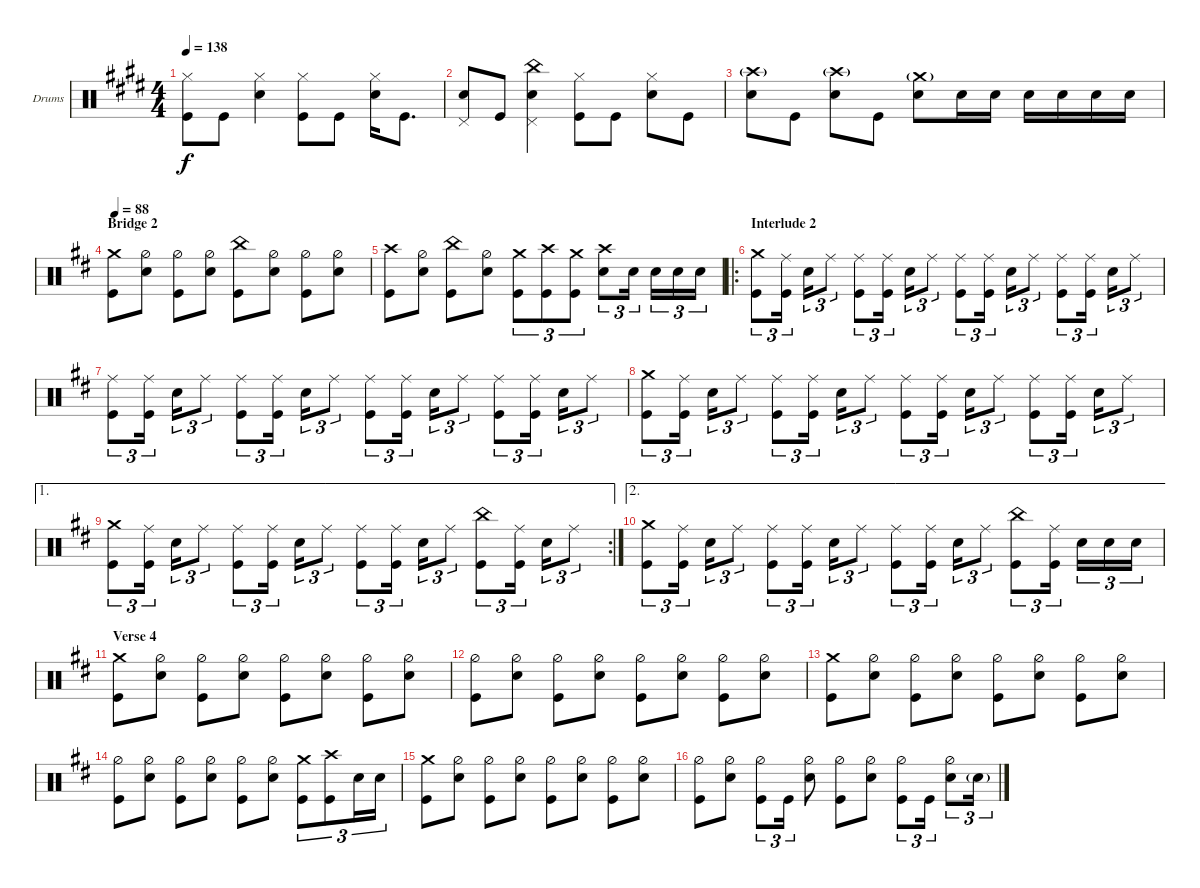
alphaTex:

\defaultSystemsLayout 4
\bracketExtendMode groupsimilarinstruments
\firstSystemTrackNameOrientation horizontal
\otherSystemsTrackNameOrientation horizontal
\track ("Drumkit" "Drums") {instrument percussion}
\staff {score}
\articulation defaults
\ts (4 4)
\tempo 138
\clef neutral
\ks e
("Hi-Hat (closed)" "Kick (hit)").8{dy f} "Kick (hit)".8 ("Snare (hit) 2" "Hi-Hat (closed)").4 ("Hi-Hat (closed)" "Kick (hit)").8 "Kick (hit)".8 ("Snare (hit) 2" "Hi-Hat (closed)").16 "Kick (hit)".8{d} |
("Snare (hit) 2" "Pedal Hi-Hat (hit)").8 "Kick (hit)".8 ("Snare (hit) 2" "China (hit)" "Pedal Hi-Hat (hit)").4 ("Hi-Hat (closed)" "Kick (hit)").8 "Kick (hit)".8 ("Snare (hit) 2" "Hi-Hat (closed)").8 "Kick (hit)".8 |
("Crash high (hit)"{g} "Snare (hit) 2").8 "Kick (hit)".8 ("Crash high (hit)"{g} "Snare (hit) 2").8 "Kick (hit)".8 ("Snare (hit) 2" "Crash medium (hit)"{g}).8 "Snare (hit) 2".16 "Snare (hit) 2".16 "Snare (hit) 2".16 "Snare (hit) 2".16 "Snare (hit) 2".16 "Snare (hit) 2".16 |
\section ("" "Bridge 2")
\tempo (88 0.00625)
\ks d
("Kick (hit)" "Crash medium (hit)").8 ("Snare (hit) 2" "Hi-Hat (half)").8 ("Kick (hit)" "Hi-Hat (half)").8 ("Snare (hit) 2" "Hi-Hat (half)").8 ("Kick (hit)" "China (hit)").8 ("Snare (hit) 2" "Hi-Hat (half)").8 ("Kick (hit)" "Hi-Hat (half)").8 ("Snare (hit) 2" "Hi-Hat (half)").8 |
("Kick (hit)" "Crash high (hit)").8 ("Snare (hit) 2" "Hi-Hat (half)").8 ("Kick (hit)" "China (hit)").8 ("Snare (hit) 2" "Hi-Hat (half)").8 ("Kick (hit)" "Crash medium (hit)").8{tu (3 2)} ("Kick (hit)" "Crash high (hit)").8{tu (3 2)} ("Crash medium (hit)" "Kick (hit)").8{tu (3 2)} ("Snare (hit) 2" "Crash high (hit)").8{tu (3 2)} "Snare (hit) 2".16{tu (3 2)} "Snare (hit) 2".16{tu (3 2)} "Snare (hit) 2".16{tu (3 2)} "Snare (hit) 2".16{tu (3 2)} |
\ro
\section ("" "Interlude 2")
("Kick (hit)" "Crash medium (hit)").8{tu (3 2)} ("Kick (hit)" "Ride (middle)").16{tu (3 2)} "Snare (hit) 2".16{tu (3 2)} "Ride (middle)".8{tu (3 2)} ("Kick (hit)" "Ride (middle)").8{tu (3 2)} ("Kick (hit)" "Ride (middle)").16{tu (3 2)} "Snare (hit) 2".16{tu (3 2)} "Ride (middle)".8{tu (3 2)} ("Kick (hit)" "Ride (middle)").8{tu (3 2)} ("Kick (hit)" "Ride (middle)").16{tu (3 2)} "Snare (hit) 2".16{tu (3 2)} "Ride (middle)".8{tu (3 2)} ("Kick (hit)" "Ride (middle)").8{tu (3 2)} ("Kick (hit)" "Ride (middle)").16{tu (3 2)} "Snare (hit) 2".16{tu (3 2)} "Ride (middle)".8{tu (3 2)} |
("Kick (hit)" "Ride (middle)").8{tu (3 2)} ("Kick (hit)" "Ride (middle)").16{tu (3 2)} "Snare (hit) 2".16{tu (3 2)} "Ride (middle)".8{tu (3 2)} ("Kick (hit)" "Ride (middle)").8{tu (3 2)} ("Kick (hit)" "Ride (middle)").16{tu (3 2)} "Snare (hit) 2".16{tu (3 2)} "Ride (middle)".8{tu (3 2)} ("Kick (hit)" "Ride (middle)").8{tu (3 2)} ("Kick (hit)" "Ride (middle)").16{tu (3 2)} "Snare (hit) 2".16{tu (3 2)} "Ride (middle)".8{tu (3 2)} ("Kick (hit)" "Ride (middle)").8{tu (3 2)} ("Kick (hit)" "Ride (middle)").16{tu (3 2)} "Snare (hit) 2".16{tu (3 2)} "Ride (middle)".8{tu (3 2)} |
("Kick (hit)" "Crash medium (hit)").8{tu (3 2)} ("Kick (hit)" "Ride (middle)").16{tu (3 2)} "Snare (hit) 2".16{tu (3 2)} "Ride (middle)".8{tu (3 2)} ("Kick (hit)" "Ride (middle)").8{tu (3 2)} ("Kick (hit)" "Ride (middle)").16{tu (3 2)} "Snare (hit) 2".16{tu (3 2)} "Ride (middle)".8{tu (3 2)} ("Kick (hit)" "Ride (middle)").8{tu (3 2)} ("Kick (hit)" "Ride (middle)").16{tu (3 2)} "Snare (hit) 2".16{tu (3 2)} "Ride (middle)".8{tu (3 2)} ("Kick (hit)" "Ride (middle)").8{tu (3 2)} ("Kick (hit)" "Ride (middle)").16{tu (3 2)} "Snare (hit) 2".16{tu (3 2)} "Ride (middle)".8{tu (3 2)} |
\ae 1
\rc 2
("Kick (hit)" "Crash medium (hit)").8{tu (3 2)} ("Kick (hit)" "Ride (middle)").16{tu (3 2)} "Snare (hit) 2".16{tu (3 2)} "Ride (middle)".8{tu (3 2)} ("Kick (hit)" "Ride (middle)").8{tu (3 2)} ("Kick (hit)" "Ride (middle)").16{tu (3 2)} "Snare (hit) 2".16{tu (3 2)} "Ride (middle)".8{tu (3 2)} ("Kick (hit)" "Ride (middle)").8{tu (3 2)} ("Kick (hit)" "Ride (middle)").16{tu (3 2)} "Snare (hit) 2".16{tu (3 2)} "Ride (middle)".8{tu (3 2)} ("Kick (hit)" "China (hit)").8{tu (3 2)} ("Kick (hit)" "Ride (middle)").16{tu (3 2)} "Snare (hit) 2".16{tu (3 2)} "Ride (middle)".8{tu (3 2)} |
\ae 2
("Kick (hit)" "Crash medium (hit)").8{tu (3 2)} ("Kick (hit)" "Ride (middle)").16{tu (3 2)} "Snare (hit) 2".16{tu (3 2)} "Ride (middle)".8{tu (3 2)} ("Kick (hit)" "Ride (middle)").8{tu (3 2)} ("Kick (hit)" "Ride (middle)").16{tu (3 2)} "Snare (hit) 2".16{tu (3 2)} "Ride (middle)".8{tu (3 2)} ("Kick (hit)" "Ride (middle)").8{tu (3 2)} ("Kick (hit)" "Ride (middle)").16{tu (3 2)} "Snare (hit) 2".16{tu (3 2)} "Ride (middle)".8{tu (3 2)} ("Kick (hit)" "China (hit)").8{tu (3 2)} ("Kick (hit)" "Ride (middle)").16{tu (3 2)} "Snare (hit) 2".16{tu (3 2)} "Snare (hit) 2".16{tu (3 2)} "Snare (hit) 2".16{tu (3 2)} |
\section ("" "Verse 4")
("Kick (hit)" "Crash medium (hit)").8 ("Hi-Hat (half)" "Snare (hit) 2").8 ("Hi-Hat (half)" "Kick (hit)").8 ("Hi-Hat (half)" "Snare (hit) 2").8 ("Hi-Hat (half)" "Kick (hit)").8 ("Hi-Hat (half)" "Snare (hit) 2").8 ("Hi-Hat (half)" "Kick (hit)").8 ("Hi-Hat (half)" "Snare (hit) 2").8 |
("Hi-Hat (half)" "Kick (hit)").8 ("Hi-Hat (half)" "Snare (hit) 2").8 ("Hi-Hat (half)" "Kick (hit)").8 ("Hi-Hat (half)" "Snare (hit) 2").8 ("Hi-Hat (half)" "Kick (hit)").8 ("Hi-Hat (half)" "Snare (hit) 2").8 ("Hi-Hat (half)" "Kick (hit)").8 ("Hi-Hat (half)" "Snare (hit) 2").8 |
("Kick (hit)" "Crash medium (hit)").8 ("Hi-Hat (half)" "Snare (hit) 2").8 ("Hi-Hat (half)" "Kick (hit)").8 ("Hi-Hat (half)" "Snare (hit) 2").8 ("Hi-Hat (half)" "Kick (hit)").8 ("Hi-Hat (half)" "Snare (hit) 2").8 ("Hi-Hat (half)" "Kick (hit)").8 ("Hi-Hat (half)" "Snare (hit) 2").8 |
("Hi-Hat (half)" "Kick (hit)").8 ("Hi-Hat (half)" "Snare (hit) 2").8 ("Hi-Hat (half)" "Kick (hit)").8 ("Hi-Hat (half)" "Snare (hit) 2").8 ("Hi-Hat (half)" "Kick (hit)").8 ("Hi-Hat (half)" "Snare (hit) 2").8 ("Kick (hit)" "Crash medium (hit)").8{tu (3 2)} ("Kick (hit)" "Crash high (hit)").8{tu (3 2)} "Snare (hit) 2".16{tu (3 2)} "Snare (hit) 2".16{tu (3 2)} |
("Kick (hit)" "Crash medium (hit)").8 ("Hi-Hat (half)" "Snare (hit) 2").8 ("Hi-Hat (half)" "Kick (hit)").8 ("Hi-Hat (half)" "Snare (hit) 2").8 ("Hi-Hat (half)" "Kick (hit)").8 ("Hi-Hat (half)" "Snare (hit) 2").8 ("Hi-Hat (half)" "Kick (hit)").8 ("Hi-Hat (half)" "Snare (hit) 2").8 |
("Hi-Hat (half)" "Kick (hit)").8 ("Hi-Hat (half)" "Snare (hit) 2").8 ("Hi-Hat (half)" "Kick (hit)").8{tu (3 2)} "Kick (hit)".16{tu (3 2)} ("Hi-Hat (half)" "Snare (hit) 2").8 ("Hi-Hat (half)" "Kick (hit)").8 ("Hi-Hat (half)" "Snare (hit) 2").8 ("Hi-Hat (half)" "Kick (hit)").8{tu (3 2)} "Kick (hit)".16{tu (3 2)} ("Hi-Hat (half)" "Snare (hit) 2").8{tu (3 2)} "Snare (hit) 2"{g}.16{tu (3 2)}
